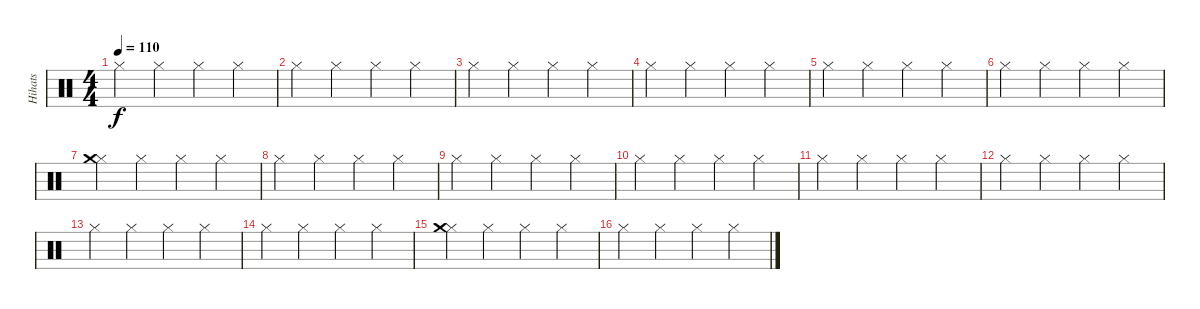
\track ("Hihats" "Hihats") {instrument percussion}
\staff {score}
\articulation defaults
\ts (4 4)
\tempo 110
\clef neutral
\ks c "Hi-Hat (closed)".4{dy f} "Hi-Hat (closed)".4 "Hi-Hat (closed)".4 "Hi-Hat (closed)".4
|
"Hi-Hat (closed)".4 "Hi-Hat (closed)".4 "Hi-Hat (closed)".4 "Hi-Hat (closed)".4 |
"Hi-Hat (closed)".4 "Hi-Hat (closed)".4 "Hi-Hat (closed)".4 "Hi-Hat (closed)".4 |
"Hi-Hat (closed)".4 "Hi-Hat (closed)".4 "Hi-Hat (closed)".4 "Hi-Hat (closed)".4 |
"Hi-Hat (closed)".4 "Hi-Hat (closed)".4 "Hi-Hat (closed)".4 "Hi-Hat (closed)".4 |
"Hi-Hat (closed)".4 "Hi-Hat (closed)".4 "Hi-Hat (closed)".4 "Hi-Hat (closed)".4 |
("Hi-Hat (closed)" "Crash medium (hit)").4 "Hi-Hat (closed)".4 "Hi-Hat (closed)".4 "Hi-Hat (closed)".4 |
"Hi-Hat (closed)".4 "Hi-Hat (closed)".4 "Hi-Hat (closed)".4 "Hi-Hat (closed)".4 |
"Hi-Hat (closed)".4 "Hi-Hat (closed)".4 "Hi-Hat (closed)".4 "Hi-Hat (closed)".4 |
"Hi-Hat (closed)".4 "Hi-Hat (closed)".4 "Hi-Hat (closed)".4 "Hi-Hat (closed)".4 |
"Hi-Hat (closed)".4 "Hi-Hat (closed)".4 "Hi-Hat (closed)".4 "Hi-Hat (closed)".4 |
"Hi-Hat (closed)".4 "Hi-Hat (closed)".4 "Hi-Hat (closed)".4 "Hi-Hat (closed)".4 |
"Hi-Hat (closed)".4 "Hi-Hat (closed)".4 "Hi-Hat (closed)".4 "Hi-Hat (closed)".4 |
"Hi-Hat (closed)".4 "Hi-Hat (closed)".4 "Hi-Hat (closed)".4 "Hi-Hat (closed)".4 |
("Hi-Hat (closed)" "Crash medium (hit)").4 "Hi-Hat (closed)".4 "Hi-Hat (closed)".4 "Hi-Hat (closed)".4 |
"Hi-Hat (closed)".4 "Hi-Hat (closed)".4 "Hi-Hat (closed)".4 "Hi-Hat (closed)".4
